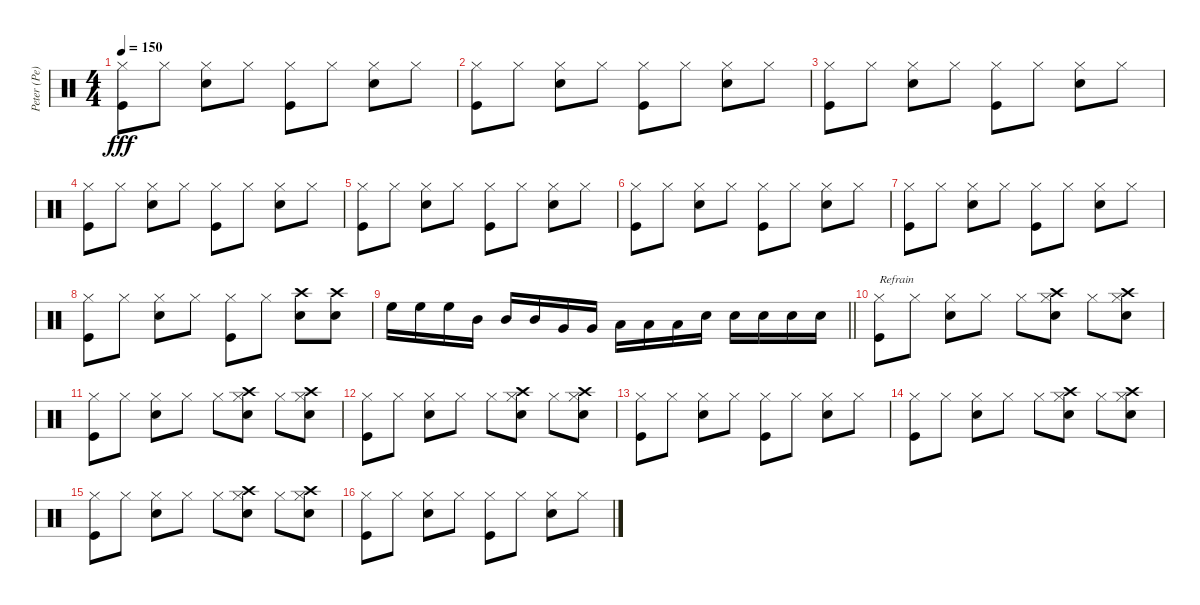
\track ("Peter (Pe) Schorowsky" "Peter (Pe)") {instrument percussion}
\staff {score}
\articulation defaults
\ts (4 4)
\tempo 150
\clef neutral
\ks c
("Kick (hit)" "Hi-Hat (closed)").8{dy fff} "Hi-Hat (closed)".8 ("Electric Snare (hit)" "Hi-Hat (closed)").8 "Hi-Hat (closed)".8 ("Kick (hit)" "Hi-Hat (closed)").8 "Hi-Hat (closed)".8 ("Electric Snare (hit)" "Hi-Hat (closed)").8 "Hi-Hat (closed)".8 |
("Kick (hit)" "Hi-Hat (closed)").8 "Hi-Hat (closed)".8 ("Electric Snare (hit)" "Hi-Hat (closed)").8 "Hi-Hat (closed)".8 ("Kick (hit)" "Hi-Hat (closed)").8 "Hi-Hat (closed)".8 ("Electric Snare (hit)" "Hi-Hat (closed)").8 "Hi-Hat (closed)".8 |
("Kick (hit)" "Hi-Hat (closed)").8 "Hi-Hat (closed)".8 ("Electric Snare (hit)" "Hi-Hat (closed)").8 "Hi-Hat (closed)".8 ("Kick (hit)" "Hi-Hat (closed)").8 "Hi-Hat (closed)".8 ("Electric Snare (hit)" "Hi-Hat (closed)").8 "Hi-Hat (closed)".8 |
("Kick (hit)" "Hi-Hat (closed)").8 "Hi-Hat (closed)".8 ("Electric Snare (hit)" "Hi-Hat (closed)").8 "Hi-Hat (closed)".8 ("Kick (hit)" "Hi-Hat (closed)").8 "Hi-Hat (closed)".8 ("Electric Snare (hit)" "Hi-Hat (closed)").8 "Hi-Hat (closed)".8 |
("Kick (hit)" "Hi-Hat (closed)").8 "Hi-Hat (closed)".8 ("Electric Snare (hit)" "Hi-Hat (closed)").8 "Hi-Hat (closed)".8 ("Kick (hit)" "Hi-Hat (closed)").8 "Hi-Hat (closed)".8 ("Electric Snare (hit)" "Hi-Hat (closed)").8 "Hi-Hat (closed)".8 |
("Kick (hit)" "Hi-Hat (closed)").8 "Hi-Hat (closed)".8 ("Electric Snare (hit)" "Hi-Hat (closed)").8 "Hi-Hat (closed)".8 ("Kick (hit)" "Hi-Hat (closed)").8 "Hi-Hat (closed)".8 ("Electric Snare (hit)" "Hi-Hat (closed)").8 "Hi-Hat (closed)".8 |
("Kick (hit)" "Hi-Hat (closed)").8 "Hi-Hat (closed)".8 ("Electric Snare (hit)" "Hi-Hat (closed)").8 "Hi-Hat (closed)".8 ("Kick (hit)" "Hi-Hat (closed)").8 "Hi-Hat (closed)".8 ("Electric Snare (hit)" "Hi-Hat (closed)").8 "Hi-Hat (closed)".8 |
("Kick (hit)" "Hi-Hat (closed)").8 "Hi-Hat (closed)".8 ("Electric Snare (hit)" "Hi-Hat (closed)").8 "Hi-Hat (closed)".8 ("Kick (hit)" "Hi-Hat (closed)").8 "Hi-Hat (closed)".8 ("Electric Snare (hit)" "Crash high (hit)").8 ("Electric Snare (hit)" "Crash high (hit)").8 |
\barLineRight lightlight "High Floor Tom (hit)".16 "High Floor Tom (hit)".16 "High Floor Tom (hit)".16 "Mid Tom (hit)".16 "Mid Tom (hit)".16 "Mid Tom (hit)".16 "Very Low Tom (hit)".16 "Very Low Tom (hit)".16 "Low Floor Tom (hit)".16 "Low Floor Tom (hit)".16 "Low Floor Tom (hit)".16 "Electric Snare (hit)".16 "Electric Snare (hit)".16 "Electric Snare (hit)".16 "Electric Snare (hit)".16 "Electric Snare (hit)".16
|
("Kick (hit)" "Hi-Hat (closed)").8{txt "Refrain"} "Hi-Hat (closed)".8 ("Electric Snare (hit)" "Hi-Hat (closed)").8 "Hi-Hat (closed)".8 "Hi-Hat (closed)".8 ("Crash high (hit)" "Electric Snare (hit)" "Hi-Hat (closed)").8 "Hi-Hat (closed)".8 ("Crash high (hit)" "Electric Snare (hit)" "Hi-Hat (closed)").8 |
("Kick (hit)" "Hi-Hat (closed)").8 "Hi-Hat (closed)".8 ("Electric Snare (hit)" "Hi-Hat (closed)").8 "Hi-Hat (closed)".8 "Hi-Hat (closed)".8 ("Crash high (hit)" "Electric Snare (hit)" "Hi-Hat (closed)").8 "Hi-Hat (closed)".8 ("Crash high (hit)" "Electric Snare (hit)" "Hi-Hat (closed)").8 |
("Kick (hit)" "Hi-Hat (closed)").8 "Hi-Hat (closed)".8 ("Electric Snare (hit)" "Hi-Hat (closed)").8 "Hi-Hat (closed)".8 "Hi-Hat (closed)".8 ("Crash high (hit)" "Electric Snare (hit)" "Hi-Hat (closed)").8 "Hi-Hat (closed)".8 ("Crash high (hit)" "Electric Snare (hit)" "Hi-Hat (closed)").8 |
("Kick (hit)" "Hi-Hat (closed)").8 "Hi-Hat (closed)".8 ("Electric Snare (hit)" "Hi-Hat (closed)").8 "Hi-Hat (closed)".8 ("Kick (hit)" "Hi-Hat (closed)").8 "Hi-Hat (closed)".8 ("Electric Snare (hit)" "Hi-Hat (closed)").8 "Hi-Hat (closed)".8 |
("Kick (hit)" "Hi-Hat (closed)").8 "Hi-Hat (closed)".8 ("Electric Snare (hit)" "Hi-Hat (closed)").8 "Hi-Hat (closed)".8 "Hi-Hat (closed)".8 ("Crash high (hit)" "Electric Snare (hit)" "Hi-Hat (closed)").8 "Hi-Hat (closed)".8 ("Crash high (hit)" "Electric Snare (hit)" "Hi-Hat (closed)").8 |
("Kick (hit)" "Hi-Hat (closed)").8 "Hi-Hat (closed)".8 ("Electric Snare (hit)" "Hi-Hat (closed)").8 "Hi-Hat (closed)".8 "Hi-Hat (closed)".8 ("Crash high (hit)" "Electric Snare (hit)" "Hi-Hat (closed)").8 "Hi-Hat (closed)".8 ("Crash high (hit)" "Electric Snare (hit)" "Hi-Hat (closed)").8 |
("Kick (hit)" "Hi-Hat (closed)").8 "Hi-Hat (closed)".8 ("Electric Snare (hit)" "Hi-Hat (closed)").8 "Hi-Hat (closed)".8 ("Kick (hit)" "Hi-Hat (closed)").8 "Hi-Hat (closed)".8 ("Electric Snare (hit)" "Hi-Hat (closed)").8 "Hi-Hat (closed)".8
